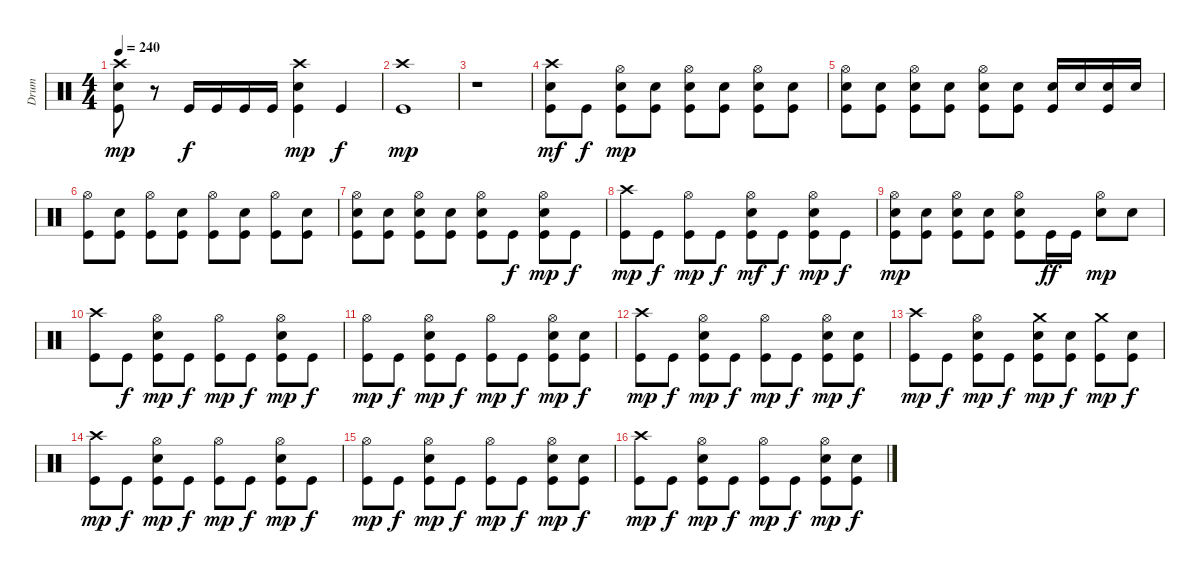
\track ("Drum" "Drum") {instrument percussion}
\staff {score}
\articulation defaults
\ts (4 4)
\tempo 240
\clef neutral
\ks c
("Crash high (hit)" "Electric Snare (hit)" "Kick (hit)").8{dy mp} r.8 "Kick (hit)".16{dy f} "Kick (hit)".16 "Kick (hit)".16 "Kick (hit)".16 ("Crash high (hit)" "Electric Snare (hit)" "Kick (hit)").4{dy mp} "Kick (hit)".4{dy f} |
("Crash high (hit)" "Kick (hit)").1{dy mp} |
r.1 |
("Crash high (hit)" "Electric Snare (hit)" "Kick (hit)").8{dy mf} "Kick (hit)".8{dy f} ("Hi-Hat (open)" "Electric Snare (hit)" "Kick (hit)").8{dy mp} ("Electric Snare (hit)" "Kick (hit)").8 ("Hi-Hat (open)" "Electric Snare (hit)" "Kick (hit)").8 ("Electric Snare (hit)" "Kick (hit)").8 ("Hi-Hat (open)" "Electric Snare (hit)" "Kick (hit)").8 ("Electric Snare (hit)" "Kick (hit)").8 |
("Hi-Hat (open)" "Electric Snare (hit)" "Kick (hit)").8 ("Electric Snare (hit)" "Kick (hit)").8 ("Hi-Hat (open)" "Electric Snare (hit)" "Kick (hit)").8 ("Electric Snare (hit)" "Kick (hit)").8 ("Hi-Hat (open)" "Electric Snare (hit)" "Kick (hit)").8 ("Electric Snare (hit)" "Kick (hit)").8 ("Electric Snare (hit)" "Kick (hit)").16 "Electric Snare (hit)".16 ("Electric Snare (hit)" "Kick (hit)").16 "Electric Snare (hit)".16 |
("Hi-Hat (open)" "Kick (hit)").8 ("Electric Snare (hit)" "Kick (hit)").8 ("Hi-Hat (open)" "Kick (hit)").8 ("Electric Snare (hit)" "Kick (hit)").8 ("Hi-Hat (open)" "Kick (hit)").8 ("Electric Snare (hit)" "Kick (hit)").8 ("Hi-Hat (open)" "Kick (hit)").8 ("Electric Snare (hit)" "Kick (hit)").8 |
("Hi-Hat (open)" "Electric Snare (hit)" "Kick (hit)").8 ("Electric Snare (hit)" "Kick (hit)").8 ("Hi-Hat (open)" "Electric Snare (hit)" "Kick (hit)").8 ("Electric Snare (hit)" "Kick (hit)").8 ("Hi-Hat (open)" "Electric Snare (hit)" "Kick (hit)").8 "Kick (hit)".8{dy f} ("Hi-Hat (open)" "Electric Snare (hit)" "Kick (hit)").8{dy mp} "Kick (hit)".8{dy f} |
("Crash high (hit)" "Kick (hit)").8{dy mp} "Kick (hit)".8{dy f} ("Hi-Hat (open)" "Kick (hit)").8{dy mp} "Kick (hit)".8{dy f} ("Hi-Hat (open)" "Electric Snare (hit)" "Kick (hit)").8{dy mf} "Kick (hit)".8{dy f} ("Hi-Hat (open)" "Electric Snare (hit)" "Kick (hit)").8{dy mp} "Kick (hit)".8{dy f} |
("Hi-Hat (open)" "Electric Snare (hit)" "Kick (hit)").8{dy mp} ("Electric Snare (hit)" "Kick (hit)").8 ("Hi-Hat (open)" "Electric Snare (hit)" "Kick (hit)").8 ("Electric Snare (hit)" "Kick (hit)").8 ("Hi-Hat (open)" "Electric Snare (hit)" "Kick (hit)").8 "Kick (hit)".16{dy ff} "Kick (hit)".16 ("Hi-Hat (open)" "Electric Snare (hit)").8{dy mp} "Electric Snare (hit)".8 |
("Crash high (hit)" "Kick (hit)").8 "Kick (hit)".8{dy f} ("Hi-Hat (open)" "Electric Snare (hit)" "Kick (hit)").8{dy mp} "Kick (hit)".8{dy f} ("Hi-Hat (open)" "Kick (hit)").8{dy mp} "Kick (hit)".8{dy f} ("Hi-Hat (open)" "Electric Snare (hit)" "Kick (hit)").8{dy mp} "Kick (hit)".8{dy f} |
("Hi-Hat (open)" "Kick (hit)").8{dy mp} "Kick (hit)".8{dy f} ("Hi-Hat (open)" "Electric Snare (hit)" "Kick (hit)").8{dy mp} "Kick (hit)".8{dy f} ("Hi-Hat (open)" "Kick (hit)").8{dy mp} "Kick (hit)".8{dy f} ("Hi-Hat (open)" "Electric Snare (hit)" "Kick (hit)").8{dy mp} ("Electric Snare (hit)" "Kick (hit)").8{dy f} |
("Crash high (hit)" "Kick (hit)").8{dy mp} "Kick (hit)".8{dy f} ("Hi-Hat (open)" "Electric Snare (hit)" "Kick (hit)").8{dy mp} "Kick (hit)".8{dy f} ("Hi-Hat (open)" "Kick (hit)").8{dy mp} "Kick (hit)".8{dy f} ("Hi-Hat (open)" "Electric Snare (hit)" "Kick (hit)").8{dy mp} ("Electric Snare (hit)" "Kick (hit)").8{dy f} |
("Crash high (hit)" "Kick (hit)").8{dy mp} "Kick (hit)".8{dy f} ("Hi-Hat (open)" "Electric Snare (hit)" "Kick (hit)").8{dy mp} "Kick (hit)".8{dy f} ("Crash medium (hit)" "Electric Snare (hit)" "Kick (hit)").8{dy mp} ("Electric Snare (hit)" "Kick (hit)").8{dy f} ("Crash medium (hit)" "Kick (hit)").8{dy mp} ("Electric Snare (hit)" "Kick (hit)").8{dy f} |
("Crash high (hit)" "Kick (hit)").8{dy mp} "Kick (hit)".8{dy f} ("Hi-Hat (open)" "Electric Snare (hit)" "Kick (hit)").8{dy mp} "Kick (hit)".8{dy f} ("Hi-Hat (open)" "Kick (hit)").8{dy mp} "Kick (hit)".8{dy f} ("Hi-Hat (open)" "Electric Snare (hit)" "Kick (hit)").8{dy mp} "Kick (hit)".8{dy f} |
("Hi-Hat (open)" "Kick (hit)").8{dy mp} "Kick (hit)".8{dy f} ("Hi-Hat (open)" "Electric Snare (hit)" "Kick (hit)").8{dy mp} "Kick (hit)".8{dy f} ("Hi-Hat (open)" "Kick (hit)").8{dy mp} "Kick (hit)".8{dy f} ("Hi-Hat (open)" "Electric Snare (hit)" "Kick (hit)").8{dy mp} ("Electric Snare (hit)" "Kick (hit)").8{dy f} |
("Crash high (hit)" "Kick (hit)").8{dy mp} "Kick (hit)".8{dy f} ("Hi-Hat (open)" "Electric Snare (hit)" "Kick (hit)").8{dy mp} "Kick (hit)".8{dy f} ("Hi-Hat (open)" "Kick (hit)").8{dy mp} "Kick (hit)".8{dy f} ("Hi-Hat (open)" "Electric Snare (hit)" "Kick (hit)").8{dy mp} ("Electric Snare (hit)" "Kick (hit)").8{dy f}
